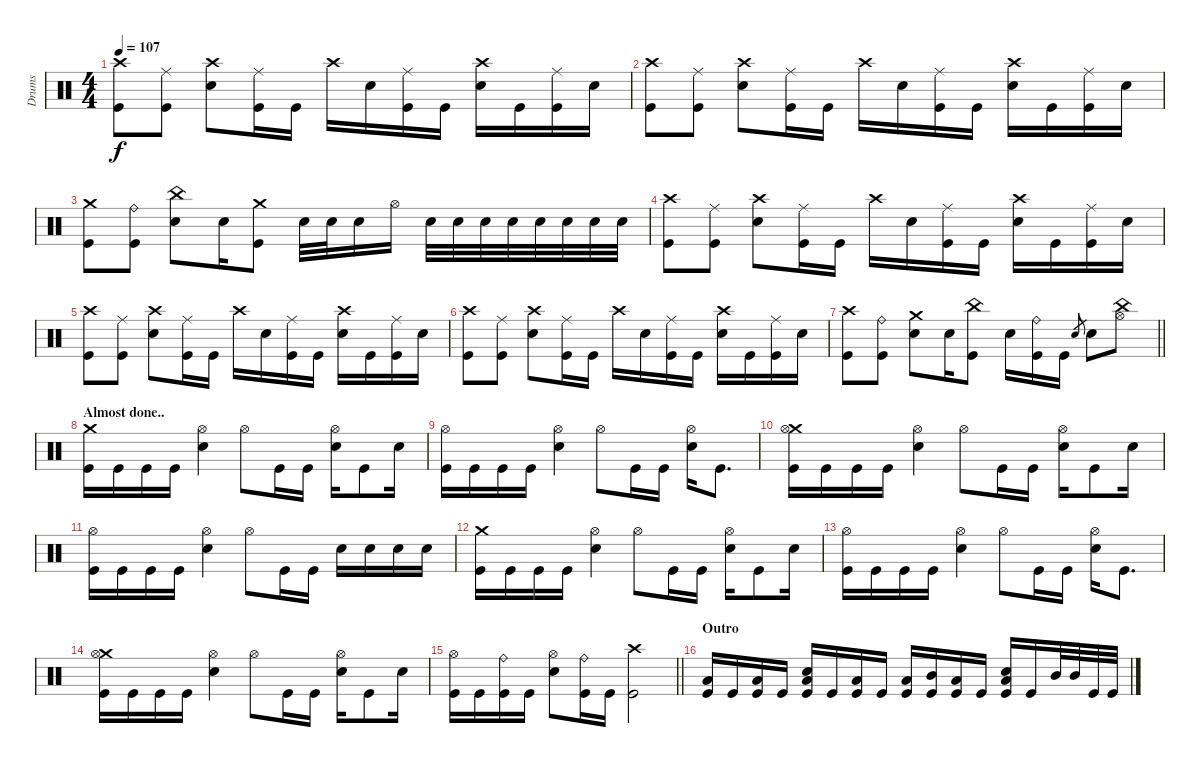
\track ("Drums" "Drums") {instrument percussion}
\staff {score}
\articulation defaults
\ts (4 4)
\tempo 107
\clef neutral
\ks c
("Crash high (hit)" "Kick (hit)").8{dy f} ("Ride (middle)" "Kick (hit)").8 ("Crash high (hit)" "Snare (hit) 2").8 ("Ride (middle)" "Kick (hit)").16 "Kick (hit)".16 "Crash high (hit)".16 "Snare (hit) 2".16 ("Ride (middle)" "Kick (hit)").16 "Kick (hit)".16 ("Crash high (hit)" "Snare (hit) 2").16 "Kick (hit)".16 ("Ride (middle)" "Kick (hit)").16 "Snare (hit) 2".16 |
("Crash high (hit)" "Kick (hit)").8 ("Ride (middle)" "Kick (hit)").8 ("Crash high (hit)" "Snare (hit) 2").8 ("Ride (middle)" "Kick (hit)").16 "Kick (hit)".16 "Crash high (hit)".16 "Snare (hit) 2".16 ("Ride (middle)" "Kick (hit)").16 "Kick (hit)".16 ("Crash high (hit)" "Snare (hit) 2").16 "Kick (hit)".16 ("Ride (middle)" "Kick (hit)").16 "Snare (hit) 2".16 |
("Crash medium (hit)" "Kick (hit)").8 ("Ride (bell)" "Kick (hit)").8 ("China (hit)" "Snare (hit) 2").8 "Snare (hit) 2".16 ("Crash medium (hit)" "Kick (hit)").8 "Snare (hit) 2".32 "Snare (hit) 2".32 "Snare (hit) 2".16 "Hi-Hat (open)".16 "Snare (hit) 2".32 "Snare (hit) 2".32 "Snare (hit) 2".32 "Snare (hit) 2".32 "Snare (hit) 2".32 "Snare (hit) 2".32 "Snare (hit) 2".32 "Snare (hit) 2".32 |
("Crash high (hit)" "Kick (hit)").8 ("Ride (middle)" "Kick (hit)").8 ("Crash high (hit)" "Snare (hit) 2").8 ("Ride (middle)" "Kick (hit)").16 "Kick (hit)".16 "Crash high (hit)".16 "Snare (hit) 2".16 ("Ride (middle)" "Kick (hit)").16 "Kick (hit)".16 ("Crash high (hit)" "Snare (hit) 2").16 "Kick (hit)".16 ("Ride (middle)" "Kick (hit)").16 "Snare (hit) 2".16 |
("Crash high (hit)" "Kick (hit)").8 ("Ride (middle)" "Kick (hit)").8 ("Crash high (hit)" "Snare (hit) 2").8 ("Ride (middle)" "Kick (hit)").16 "Kick (hit)".16 "Crash high (hit)".16 "Snare (hit) 2".16 ("Ride (middle)" "Kick (hit)").16 "Kick (hit)".16 ("Crash high (hit)" "Snare (hit) 2").16 "Kick (hit)".16 ("Ride (middle)" "Kick (hit)").16 "Snare (hit) 2".16 |
("Crash high (hit)" "Kick (hit)").8 ("Ride (middle)" "Kick (hit)").8 ("Crash high (hit)" "Snare (hit) 2").8 ("Ride (middle)" "Kick (hit)").16 "Kick (hit)".16 "Crash high (hit)".16 "Snare (hit) 2".16 ("Ride (middle)" "Kick (hit)").16 "Kick (hit)".16 ("Crash high (hit)" "Snare (hit) 2").16 "Kick (hit)".16 ("Ride (middle)" "Kick (hit)").16 "Snare (hit) 2".16 |
\barLineRight lightlight
("Crash high (hit)" "Kick (hit)").8 ("Ride (bell)" "Kick (hit)").8 ("Crash medium (hit)" "Snare (hit) 2").8 "Snare (hit) 2".16 ("China (hit)" "Kick (hit)").8 "Snare (hit) 2".16 ("Ride (bell)" "Kick (hit)").16 "Kick (hit)".16 "Snare (hit) 2".8{gr} "Snare (hit) 2".8 ("China (hit)" "Hi-Hat (open)").8 |
\section ("" "Almost done..")
("Crash medium (hit)" "Kick (hit)").16 "Kick (hit)".16 "Kick (hit)".16 "Kick (hit)".16 ("Hi-Hat (open)" "Snare (hit) 2").4 "Hi-Hat (open)".8 "Kick (hit)".16 "Kick (hit)".16 ("Hi-Hat (open)" "Snare (hit) 2").16 "Kick (hit)".8 "Snare (hit) 2".16 |
("Hi-Hat (open)" "Kick (hit)").16 "Kick (hit)".16 "Kick (hit)".16 "Kick (hit)".16 ("Hi-Hat (open)" "Snare (hit) 2").4 "Hi-Hat (open)".8 "Kick (hit)".16 "Kick (hit)".16 ("Hi-Hat (open)" "Snare (hit) 2").16 "Kick (hit)".8{d} |
("Crash medium (hit)" "Hi-Hat (open)" "Kick (hit)").16 "Kick (hit)".16 "Kick (hit)".16 "Kick (hit)".16 ("Hi-Hat (open)" "Snare (hit) 2").4 "Hi-Hat (open)".8 "Kick (hit)".16 "Kick (hit)".16 ("Hi-Hat (open)" "Snare (hit) 2").16 "Kick (hit)".8 "Snare (hit) 2".16 |
("Hi-Hat (open)" "Kick (hit)").16 "Kick (hit)".16 "Kick (hit)".16 "Kick (hit)".16 ("Hi-Hat (open)" "Snare (hit) 2").4 "Hi-Hat (open)".8 "Kick (hit)".16 "Kick (hit)".16 "Snare (hit) 2".16 "Snare (hit) 2".16 "Snare (hit) 2".16 "Snare (hit) 2".16 |
("Crash medium (hit)" "Kick (hit)").16 "Kick (hit)".16 "Kick (hit)".16 "Kick (hit)".16 ("Hi-Hat (open)" "Snare (hit) 2").4 "Hi-Hat (open)".8 "Kick (hit)".16 "Kick (hit)".16 ("Hi-Hat (open)" "Snare (hit) 2").16 "Kick (hit)".8 "Snare (hit) 2".16 |
("Hi-Hat (open)" "Kick (hit)").16 "Kick (hit)".16 "Kick (hit)".16 "Kick (hit)".16 ("Hi-Hat (open)" "Snare (hit) 2").4 "Hi-Hat (open)".8 "Kick (hit)".16 "Kick (hit)".16 ("Hi-Hat (open)" "Snare (hit) 2").16 "Kick (hit)".8{d} |
("Crash medium (hit)" "Hi-Hat (open)" "Kick (hit)").16 "Kick (hit)".16 "Kick (hit)".16 "Kick (hit)".16 ("Hi-Hat (open)" "Snare (hit) 2").4 "Hi-Hat (open)".8 "Kick (hit)".16 "Kick (hit)".16 ("Hi-Hat (open)" "Snare (hit) 2").16 "Kick (hit)".8 "Snare (hit) 2".16 |
\barLineRight lightlight
("Hi-Hat (open)" "Kick (hit)").16 "Kick (hit)".16 ("Ride (bell)" "Kick (hit)").16 "Kick (hit)".16 ("Hi-Hat (open)" "Snare (hit) 2").8 ("Ride (bell)" "Kick (hit)").16 "Kick (hit)".16 ("Crash high (hit)" "Kick (hit)").2 |
\section ("" "Outro")
("Low Tom (hit)" "Kick (hit)").16 "Kick (hit)".16 ("Low Tom (hit)" "Kick (hit)").16 "Kick (hit)".16 ("Low Tom (hit)" "Snare (hit) 2" "Kick (hit)").16 "Kick (hit)".16 ("Low Tom (hit)" "Kick (hit)").16 "Kick (hit)".16 ("Low Tom (hit)" "Kick (hit)").16 ("Mid Tom (hit)" "Kick (hit)").16 ("Low Tom (hit)" "Kick (hit)").16 "Kick (hit)".16 ("Low Tom (hit)" "Snare (hit) 2" "Kick (hit)").16 "Kick (hit)".16 "Mid Tom (hit)".32 "Mid Tom (hit)".32 "Kick (hit)".32 "Kick (hit)".32
